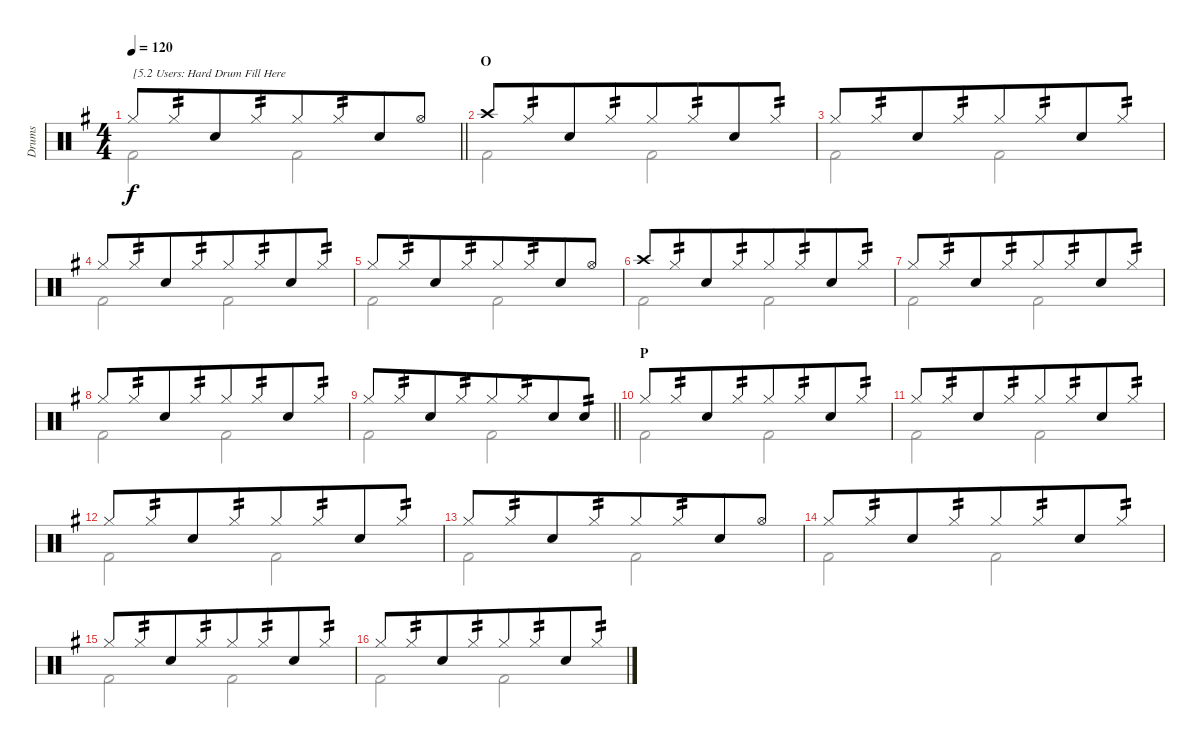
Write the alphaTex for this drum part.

\track ("Drums" "Drums") {instrument percussion}
\staff {score}
\articulation defaults
\voice
\ts (4 4)
\tempo 120
\clef neutral
\barLineRight lightlight
\ks g "Hi-Hat (closed)".8{txt "[5.2 Users: Hard Drum Fill Here" dy f} "Hi-Hat (closed)".8{tp 2 beam merge} "Snare (hit) 2".8 "Hi-Hat (closed)".8{tp 2 beam merge} "Hi-Hat (closed)".8 "Hi-Hat (closed)".8{tp 2 beam merge} "Snare (hit) 2".8 "Hi-Hat (open)".8
|
\section ("" "O")
"Crash high (hit)".8 "Hi-Hat (closed)".8{tp 2 beam merge} "Snare (hit) 2".8 "Hi-Hat (closed)".8{tp 2 beam merge} "Hi-Hat (closed)".8 "Hi-Hat (closed)".8{tp 2 beam merge} "Snare (hit) 2".8 "Hi-Hat (closed)".8{tp 2} |
"Hi-Hat (closed)".8 "Hi-Hat (closed)".8{tp 2 beam merge} "Snare (hit) 2".8 "Hi-Hat (closed)".8{tp 2 beam merge} "Hi-Hat (closed)".8 "Hi-Hat (closed)".8{tp 2 beam merge} "Snare (hit) 2".8 "Hi-Hat (closed)".8{tp 2} |
"Hi-Hat (closed)".8 "Hi-Hat (closed)".8{tp 2 beam merge} "Snare (hit) 2".8 "Hi-Hat (closed)".8{tp 2 beam merge} "Hi-Hat (closed)".8 "Hi-Hat (closed)".8{tp 2 beam merge} "Snare (hit) 2".8 "Hi-Hat (closed)".8{tp 2} |
"Hi-Hat (closed)".8 "Hi-Hat (closed)".8{tp 2 beam merge} "Snare (hit) 2".8 "Hi-Hat (closed)".8{tp 2 beam merge} "Hi-Hat (closed)".8 "Hi-Hat (closed)".8{tp 2 beam merge} "Snare (hit) 2".8 "Hi-Hat (open)".8 |
"Crash high (hit)".8 "Hi-Hat (closed)".8{tp 2 beam merge} "Snare (hit) 2".8 "Hi-Hat (closed)".8{tp 2 beam merge} "Hi-Hat (closed)".8 "Hi-Hat (closed)".8{tp 2 beam merge} "Snare (hit) 2".8 "Hi-Hat (closed)".8{tp 2} |
"Hi-Hat (closed)".8 "Hi-Hat (closed)".8{tp 2 beam merge} "Snare (hit) 2".8 "Hi-Hat (closed)".8{tp 2 beam merge} "Hi-Hat (closed)".8 "Hi-Hat (closed)".8{tp 2 beam merge} "Snare (hit) 2".8 "Hi-Hat (closed)".8{tp 2} |
"Hi-Hat (closed)".8 "Hi-Hat (closed)".8{tp 2 beam merge} "Snare (hit) 2".8 "Hi-Hat (closed)".8{tp 2 beam merge} "Hi-Hat (closed)".8 "Hi-Hat (closed)".8{tp 2 beam merge} "Snare (hit) 2".8 "Hi-Hat (closed)".8{tp 2} |
\barLineRight lightlight "Hi-Hat (closed)".8 "Hi-Hat (closed)".8{tp 2 beam merge} "Snare (hit) 2".8 "Hi-Hat (closed)".8{tp 2 beam merge} "Hi-Hat (closed)".8 "Hi-Hat (closed)".8{tp 2 beam merge} "Snare (hit) 2".8 "Electric Snare (hit)".8{tp 2}
|
\section ("" "P")
"Hi-Hat (closed)".8 "Hi-Hat (closed)".8{tp 2 beam merge} "Snare (hit) 2".8 "Hi-Hat (closed)".8{tp 2 beam merge} "Hi-Hat (closed)".8 "Hi-Hat (closed)".8{tp 2 beam merge} "Snare (hit) 2".8 "Hi-Hat (closed)".8{tp 2} |
"Hi-Hat (closed)".8 "Hi-Hat (closed)".8{tp 2 beam merge} "Snare (hit) 2".8 "Hi-Hat (closed)".8{tp 2 beam merge} "Hi-Hat (closed)".8 "Hi-Hat (closed)".8{tp 2 beam merge} "Snare (hit) 2".8 "Hi-Hat (closed)".8{tp 2} |
"Hi-Hat (closed)".8 "Hi-Hat (closed)".8{tp 2 beam merge} "Snare (hit) 2".8 "Hi-Hat (closed)".8{tp 2 beam merge} "Hi-Hat (closed)".8 "Hi-Hat (closed)".8{tp 2 beam merge} "Snare (hit) 2".8 "Hi-Hat (closed)".8{tp 2} |
"Hi-Hat (closed)".8 "Hi-Hat (closed)".8{tp 2 beam merge} "Snare (hit) 2".8 "Hi-Hat (closed)".8{tp 2 beam merge} "Hi-Hat (closed)".8 "Hi-Hat (closed)".8{tp 2 beam merge} "Snare (hit) 2".8 "Hi-Hat (open)".8 |
"Hi-Hat (closed)".8 "Hi-Hat (closed)".8{tp 2 beam merge} "Snare (hit) 2".8 "Hi-Hat (closed)".8{tp 2 beam merge} "Hi-Hat (closed)".8 "Hi-Hat (closed)".8{tp 2 beam merge} "Snare (hit) 2".8 "Hi-Hat (closed)".8{tp 2} |
"Hi-Hat (closed)".8 "Hi-Hat (closed)".8{tp 2 beam merge} "Snare (hit) 2".8 "Hi-Hat (closed)".8{tp 2 beam merge} "Hi-Hat (closed)".8 "Hi-Hat (closed)".8{tp 2 beam merge} "Snare (hit) 2".8 "Hi-Hat (closed)".8{tp 2} |
"Hi-Hat (closed)".8 "Hi-Hat (closed)".8{tp 2 beam merge} "Snare (hit) 2".8 "Hi-Hat (closed)".8{tp 2 beam merge} "Hi-Hat (closed)".8 "Hi-Hat (closed)".8{tp 2 beam merge} "Snare (hit) 2".8 "Hi-Hat (closed)".8{tp 2}
\voice
\clef neutral
\ottava regular
\simile none
\barLineRight lightlight
\ks g "Kick (hit) 2".2{dy f} "Kick (hit) 2".2
|
"Kick (hit) 2".2 "Kick (hit) 2".2 |
"Kick (hit) 2".2 "Kick (hit) 2".2 |
"Kick (hit) 2".2 "Kick (hit) 2".2 |
"Kick (hit) 2".2 "Kick (hit) 2".2 |
"Kick (hit) 2".2 "Kick (hit) 2".2 |
"Kick (hit) 2".2 "Kick (hit) 2".2 |
"Kick (hit) 2".2 "Kick (hit) 2".2 |
\barLineRight lightlight "Kick (hit) 2".2 "Kick (hit) 2".2
|
"Kick (hit) 2".2 "Kick (hit) 2".2 |
"Kick (hit) 2".2 "Kick (hit) 2".2 |
"Kick (hit) 2".2 "Kick (hit) 2".2 |
"Kick (hit) 2".2 "Kick (hit) 2".2 |
"Kick (hit) 2".2 "Kick (hit) 2".2 |
"Kick (hit) 2".2 "Kick (hit) 2".2 |
"Kick (hit) 2".2 "Kick (hit) 2".2
